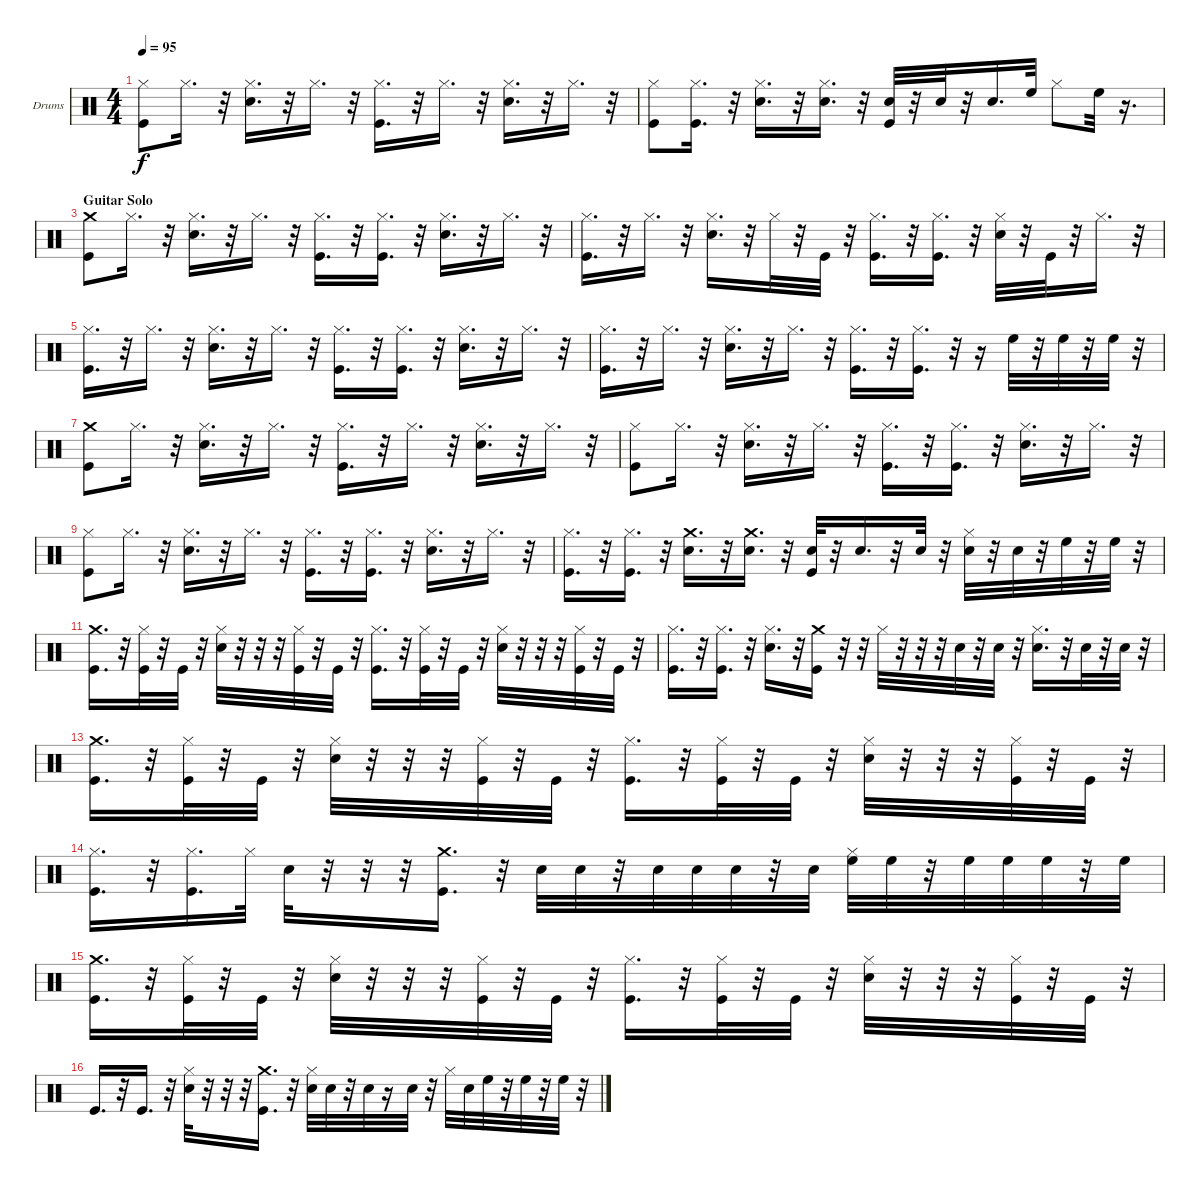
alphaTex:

\bracketExtendMode nobrackets
\firstSystemTrackNameOrientation horizontal
\otherSystemsTrackNameOrientation horizontal
\defaultBarNumberDisplay FirstOfSystem
\track ("Drumkit" "Drums") {instrument percussion}
\staff {score}
\articulation defaults
\ts (4 4)
\tempo 95
\clef neutral
\scale
0.494208
\ks c
("Hi-Hat (closed)" "Kick (hit)").8{dy f} "Hi-Hat (closed)".16{d} r.32 ("Hi-Hat (closed)" "Snare (hit) 2").16{d} r.32 "Hi-Hat (closed)".16{d} r.32 ("Hi-Hat (closed)" "Kick (hit)").16{d} r.32 "Hi-Hat (closed)".16{d} r.32 ("Hi-Hat (closed)" "Snare (hit) 2").16{d} r.32 "Hi-Hat (closed)".16{d} r.32 |
\scale
0.505792 ("Hi-Hat (closed)" "Kick (hit)").8 ("Hi-Hat (closed)" "Kick (hit)").16{d} r.32 ("Snare (hit) 2" "Hi-Hat (closed)").16{d} r.32 ("Snare (hit) 2" "Hi-Hat (closed)").16{d} r.32 ("Snare (hit) 2" "Kick (hit)").32 r.32 "Snare (hit) 2".32 r.32 "Snare (hit) 2".16{d} "High Floor Tom (hit)".32 "Hi-Hat (closed)".8 "High Floor Tom (hit)".32 r.16{d} |
\section ("" "Guitar Solo")
\scale
0.467153 ("Kick (hit)" "Crash medium (hit)").8 "Hi-Hat (closed)".16{d} r.32 ("Hi-Hat (closed)" "Snare (hit) 2").16{d} r.32 "Hi-Hat (closed)".16{d} r.32 ("Hi-Hat (closed)" "Kick (hit)").16{d} r.32 ("Hi-Hat (closed)" "Kick (hit)").16{d} r.32 ("Hi-Hat (closed)" "Snare (hit) 2").16{d} r.32 "Hi-Hat (closed)".16{d} r.32 |
\scale
0.532847 ("Hi-Hat (closed)" "Kick (hit)").16{d} r.32 "Hi-Hat (closed)".16{d} r.32 ("Hi-Hat (closed)" "Snare (hit) 2").16{d} r.32 "Hi-Hat (closed)".32 r.32 "Kick (hit)".32 r.32 ("Hi-Hat (closed)" "Kick (hit)").16{d} r.32 ("Hi-Hat (closed)" "Kick (hit)").16{d} r.32 ("Hi-Hat (closed)" "Snare (hit) 2").32 r.32 "Kick (hit)".32 r.32 "Hi-Hat (closed)".16{d} r.32 |
\scale
0.480874 ("Hi-Hat (closed)" "Kick (hit)").16{d} r.32 "Hi-Hat (closed)".16{d} r.32 ("Hi-Hat (closed)" "Snare (hit) 2").16{d} r.32 "Hi-Hat (closed)".16{d} r.32 ("Hi-Hat (closed)" "Kick (hit)").16{d} r.32 ("Hi-Hat (closed)" "Kick (hit)").16{d} r.32 ("Hi-Hat (closed)" "Snare (hit) 2").16{d} r.32 "Hi-Hat (closed)".16{d} r.32 |
\scale
0.519126 ("Hi-Hat (closed)" "Kick (hit)").16{d} r.32 "Hi-Hat (closed)".16{d} r.32 ("Hi-Hat (closed)" "Snare (hit) 2").16{d} r.32 "Hi-Hat (closed)".16{d} r.32 ("Hi-Hat (closed)" "Kick (hit)").16{d} r.32 ("Hi-Hat (closed)" "Kick (hit)").16{d} r.32 r.16 "High Floor Tom (hit)".32 r.32 "High Floor Tom (hit)".32 r.32 "High Floor Tom (hit)".32 r.32 |
\scale
0.5 ("Kick (hit)" "Crash medium (hit)").8 "Hi-Hat (closed)".16{d} r.32 ("Hi-Hat (closed)" "Snare (hit) 2").16{d} r.32 "Hi-Hat (closed)".16{d} r.32 ("Hi-Hat (closed)" "Kick (hit)").16{d} r.32 "Hi-Hat (closed)".16{d} r.32 ("Hi-Hat (closed)" "Snare (hit) 2").16{d} r.32 "Hi-Hat (closed)".16{d} r.32 |
\scale
0.5 ("Hi-Hat (closed)" "Kick (hit)").8 "Hi-Hat (closed)".16{d} r.32 ("Hi-Hat (closed)" "Snare (hit) 2").16{d} r.32 "Hi-Hat (closed)".16{d} r.32 ("Hi-Hat (closed)" "Kick (hit)").16{d} r.32 ("Hi-Hat (closed)" "Kick (hit)").16{d} r.32 ("Hi-Hat (closed)" "Snare (hit) 2").16{d} r.32 "Hi-Hat (closed)".16{d} r.32 |
\scale
0.455516 ("Hi-Hat (closed)" "Kick (hit)").8 "Hi-Hat (closed)".16{d} r.32 ("Hi-Hat (closed)" "Snare (hit) 2").16{d} r.32 "Hi-Hat (closed)".16{d} r.32 ("Hi-Hat (closed)" "Kick (hit)").16{d} r.32 ("Hi-Hat (closed)" "Kick (hit)").16{d} r.32 ("Hi-Hat (closed)" "Snare (hit) 2").16{d} r.32 "Hi-Hat (closed)".16{d} r.32 |
\scale
0.544484 ("Kick (hit)" "Hi-Hat (closed)").16{d} r.32 ("Kick (hit)" "Hi-Hat (closed)").16{d} r.32 ("Snare (hit) 2" "Crash medium (hit)").16{d} r.32 ("Snare (hit) 2" "Crash medium (hit)").16{d} r.32 ("Snare (hit) 2" "Kick (hit)").32 r.32 "Snare (hit) 2".16{d} r.32 "Snare (hit) 2".32 r.32 ("Snare (hit) 2" "Hi-Hat (closed)").32 r.32 "Snare (hit) 2".32 r.32 "High Floor Tom (hit)".32 r.32 "High Floor Tom (hit)".32 r.32 |
\scale
0.526475 ("Kick (hit)" "Crash medium (hit)").16{d} r.32 ("Kick (hit)" "Hi-Hat (closed)").32 r.32 "Kick (hit)".32 r.32 ("Hi-Hat (closed)" "Snare (hit) 2").32 r.32 r.32 r.32 ("Kick (hit)" "Hi-Hat (closed)").32 r.32 "Kick (hit)".32 r.32 ("Kick (hit)" "Hi-Hat (closed)").16{d} r.32 ("Kick (hit)" "Hi-Hat (closed)").32 r.32 "Kick (hit)".32 r.32 ("Hi-Hat (closed)" "Snare (hit) 2").32 r.32 r.32 r.32 ("Kick (hit)" "Hi-Hat (closed)").32 r.32 "Kick (hit)".32 r.32 |
\scale
0.473525 ("Hi-Hat (closed)" "Kick (hit)").16{d} r.32 ("Hi-Hat (closed)" "Kick (hit)").16{d} r.32 ("Hi-Hat (closed)" "Snare (hit) 2").16{d} r.32 ("Kick (hit)" "Crash medium (hit)").16 r.32 r.32 "Hi-Hat (closed)".32 r.32 r.32 r.32 "Snare (hit) 2".32 r.32 "Snare (hit) 2".32 r.32 ("Snare (hit) 2" "Hi-Hat (closed)").16{d} r.32 "Snare (hit) 2".32 r.32 "Snare (hit) 2".32 r.32 |
\scale
0.510264 ("Kick (hit)" "Crash medium (hit)").16{d} r.32 ("Kick (hit)" "Hi-Hat (closed)").32 r.32 "Kick (hit)".32 r.32 ("Hi-Hat (closed)" "Snare (hit) 2").32 r.32 r.32 r.32 ("Kick (hit)" "Hi-Hat (closed)").32 r.32 "Kick (hit)".32 r.32 ("Kick (hit)" "Hi-Hat (closed)").16{d} r.32 ("Kick (hit)" "Hi-Hat (closed)").32 r.32 "Kick (hit)".32 r.32 ("Hi-Hat (closed)" "Snare (hit) 2").32 r.32 r.32 r.32 ("Kick (hit)" "Hi-Hat (closed)").32 r.32 "Kick (hit)".32 r.32 |
\scale
0.489736 ("Kick (hit)" "Hi-Hat (closed)").16{d} r.32 ("Kick (hit)" "Hi-Hat (closed)").16{d} "Hi-Hat (closed)".32 "Snare (hit) 2".32 r.32 r.32 r.32 ("Kick (hit)" "Crash medium (hit)").16{d} r.32 "Snare (hit) 2".32 "Snare (hit) 2".32 r.32 "Snare (hit) 2".32 "Snare (hit) 2".32 "Snare (hit) 2".32 r.32 "Snare (hit) 2".32 ("High Floor Tom (hit)" "Hi-Hat (closed)").32 "High Floor Tom (hit)".32 r.32 "High Floor Tom (hit)".32 "High Floor Tom (hit)".32 "High Floor Tom (hit)".32 r.32 "High Floor Tom (hit)".32 |
\scale
0.515556 ("Kick (hit)" "Crash medium (hit)").16{d} r.32 ("Kick (hit)" "Hi-Hat (closed)").32 r.32 "Kick (hit)".32 r.32 ("Hi-Hat (closed)" "Snare (hit) 2").32 r.32 r.32 r.32 ("Kick (hit)" "Hi-Hat (closed)").32 r.32 "Kick (hit)".32 r.32 ("Kick (hit)" "Hi-Hat (closed)").16{d} r.32 ("Kick (hit)" "Hi-Hat (closed)").32 r.32 "Kick (hit)".32 r.32 ("Hi-Hat (closed)" "Snare (hit) 2").32 r.32 r.32 r.32 ("Kick (hit)" "Hi-Hat (closed)").32 r.32 "Kick (hit)".32 r.32 |
\scale
0.484444 "Kick (hit)".16{d} r.32 "Kick (hit)".16{d} r.32 ("Snare (hit) 2" "Hi-Hat (closed)").32 r.32 r.32 r.32 ("Kick (hit)" "Crash medium (hit)").16{d} r.32 ("Snare (hit) 2" "Hi-Hat (closed)").32 "Snare (hit) 2".32 r.32 "Snare (hit) 2".32 r.16 "Snare (hit) 2".32 r.32 "Hi-Hat (closed)".32 "Snare (hit) 2".32 "High Floor Tom (hit)".32 r.32 "High Floor Tom (hit)".32 r.32 "High Floor Tom (hit)".32 r.32
